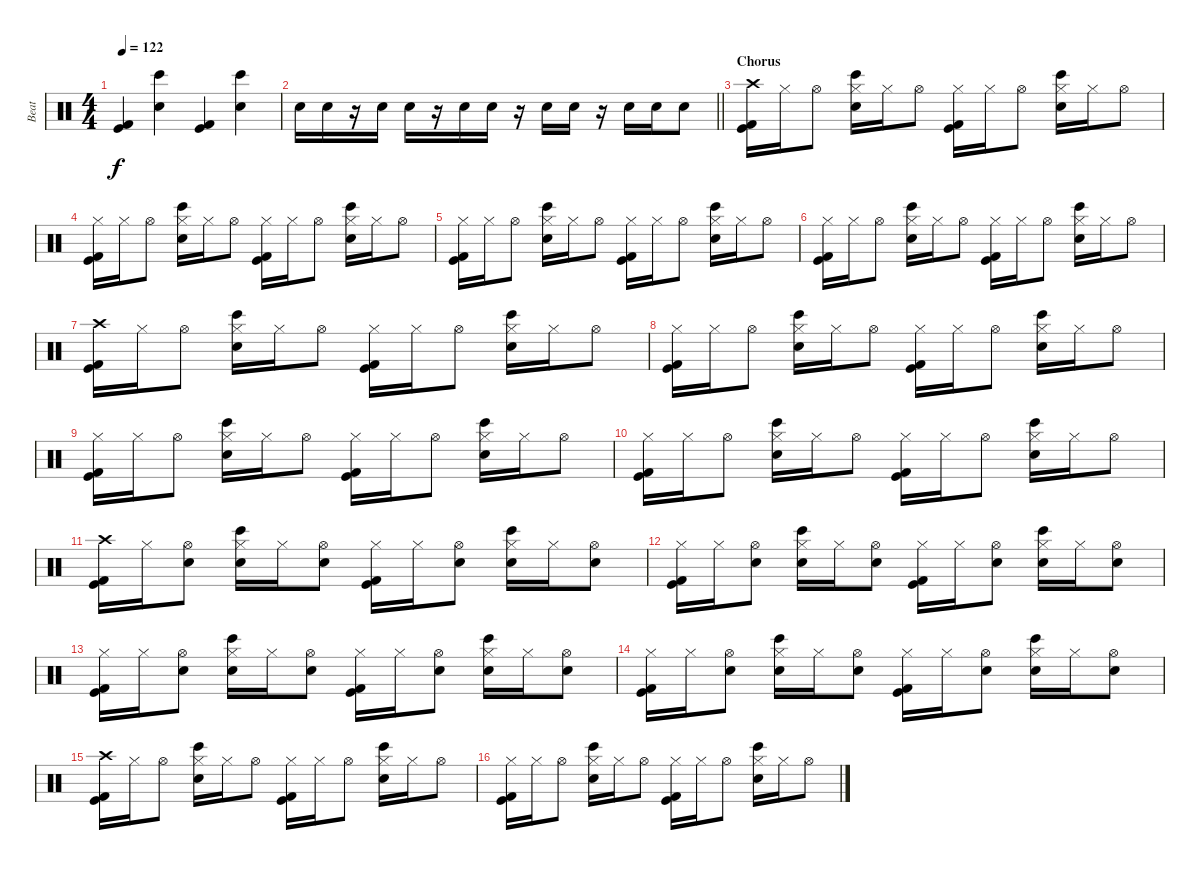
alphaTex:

\track ("Beat" "Beat") {instrument percussion}
\staff {score}
\articulation defaults
\ts (4 4)
\tempo 122
\clef neutral
\ks c
("Kick (hit)" "Kick (hit) 2").4{dy f} ("Bongo High (hit)" "Electric Snare (hit)").4 ("Kick (hit)" "Kick (hit) 2").4 ("Bongo High (hit)" "Electric Snare (hit)").4 |
\barLineRight lightlight "Electric Snare (hit)".16 "Electric Snare (hit)".16
r.16 "Electric Snare (hit)".16 "Electric Snare (hit)".16 r.16 "Electric Snare (hit)".16 "Electric Snare (hit)".16 r.16 "Electric Snare (hit)".16 "Electric Snare (hit)".16 r.16 "Electric Snare (hit)".16 "Electric Snare (hit)".16 "Electric Snare (hit)".8 |
\section ("" "Chorus")
("Crash high (hit)" "Kick (hit)" "Kick (hit) 2").16 "Hi-Hat (closed)".16 "Hi-Hat (open)".8 ("Hi-Hat (closed)" "Bongo High (hit)" "Electric Snare (hit)").16 "Hi-Hat (closed)".16 "Hi-Hat (open)".8 ("Hi-Hat (closed)" "Kick (hit)" "Kick (hit) 2").16 "Hi-Hat (closed)".16 "Hi-Hat (open)".8 ("Hi-Hat (closed)" "Bongo High (hit)" "Electric Snare (hit)").16 "Hi-Hat (closed)".16 "Hi-Hat (open)".8 |
("Hi-Hat (closed)" "Kick (hit)" "Kick (hit) 2").16 "Hi-Hat (closed)".16 "Hi-Hat (open)".8 ("Hi-Hat (closed)" "Bongo High (hit)" "Electric Snare (hit)").16 "Hi-Hat (closed)".16 "Hi-Hat (open)".8 ("Hi-Hat (closed)" "Kick (hit)" "Kick (hit) 2").16 "Hi-Hat (closed)".16 "Hi-Hat (open)".8 ("Hi-Hat (closed)" "Bongo High (hit)" "Electric Snare (hit)").16 "Hi-Hat (closed)".16 "Hi-Hat (open)".8 |
("Hi-Hat (closed)" "Kick (hit)" "Kick (hit) 2").16 "Hi-Hat (closed)".16 "Hi-Hat (open)".8 ("Hi-Hat (closed)" "Bongo High (hit)" "Electric Snare (hit)").16 "Hi-Hat (closed)".16 "Hi-Hat (open)".8 ("Hi-Hat (closed)" "Kick (hit)" "Kick (hit) 2").16 "Hi-Hat (closed)".16 "Hi-Hat (open)".8 ("Hi-Hat (closed)" "Bongo High (hit)" "Electric Snare (hit)").16 "Hi-Hat (closed)".16 "Hi-Hat (open)".8 |
("Hi-Hat (closed)" "Kick (hit)" "Kick (hit) 2").16 "Hi-Hat (closed)".16 "Hi-Hat (open)".8 ("Hi-Hat (closed)" "Bongo High (hit)" "Electric Snare (hit)").16 "Hi-Hat (closed)".16 "Hi-Hat (open)".8 ("Hi-Hat (closed)" "Kick (hit)" "Kick (hit) 2").16 "Hi-Hat (closed)".16 "Hi-Hat (open)".8 ("Hi-Hat (closed)" "Bongo High (hit)" "Electric Snare (hit)").16 "Hi-Hat (closed)".16 "Hi-Hat (open)".8 |
("Crash high (hit)" "Kick (hit)" "Kick (hit) 2").16 "Hi-Hat (closed)".16 "Hi-Hat (open)".8 ("Hi-Hat (closed)" "Bongo High (hit)" "Electric Snare (hit)").16 "Hi-Hat (closed)".16 "Hi-Hat (open)".8 ("Hi-Hat (closed)" "Kick (hit)" "Kick (hit) 2").16 "Hi-Hat (closed)".16 "Hi-Hat (open)".8 ("Hi-Hat (closed)" "Bongo High (hit)" "Electric Snare (hit)").16 "Hi-Hat (closed)".16 "Hi-Hat (open)".8 |
("Hi-Hat (closed)" "Kick (hit)" "Kick (hit) 2").16 "Hi-Hat (closed)".16 "Hi-Hat (open)".8 ("Hi-Hat (closed)" "Bongo High (hit)" "Electric Snare (hit)").16 "Hi-Hat (closed)".16 "Hi-Hat (open)".8 ("Hi-Hat (closed)" "Kick (hit)" "Kick (hit) 2").16 "Hi-Hat (closed)".16 "Hi-Hat (open)".8 ("Hi-Hat (closed)" "Bongo High (hit)" "Electric Snare (hit)").16 "Hi-Hat (closed)".16 "Hi-Hat (open)".8 |
("Hi-Hat (closed)" "Kick (hit)" "Kick (hit) 2").16 "Hi-Hat (closed)".16 "Hi-Hat (open)".8 ("Hi-Hat (closed)" "Bongo High (hit)" "Electric Snare (hit)").16 "Hi-Hat (closed)".16 "Hi-Hat (open)".8 ("Hi-Hat (closed)" "Kick (hit)" "Kick (hit) 2").16 "Hi-Hat (closed)".16 "Hi-Hat (open)".8 ("Hi-Hat (closed)" "Bongo High (hit)" "Electric Snare (hit)").16 "Hi-Hat (closed)".16 "Hi-Hat (open)".8 |
("Hi-Hat (closed)" "Kick (hit)" "Kick (hit) 2").16 "Hi-Hat (closed)".16 "Hi-Hat (open)".8 ("Hi-Hat (closed)" "Bongo High (hit)" "Electric Snare (hit)").16 "Hi-Hat (closed)".16 "Hi-Hat (open)".8 ("Hi-Hat (closed)" "Kick (hit)" "Kick (hit) 2").16 "Hi-Hat (closed)".16 "Hi-Hat (open)".8 ("Hi-Hat (closed)" "Bongo High (hit)" "Electric Snare (hit)").16 "Hi-Hat (closed)".16 "Hi-Hat (open)".8 |
("Crash high (hit)" "Kick (hit)" "Kick (hit) 2").16 "Hi-Hat (closed)".16 ("Hi-Hat (open)" "Hand Clap (hit)").8 ("Hi-Hat (closed)" "Bongo High (hit)" "Electric Snare (hit)").16 "Hi-Hat (closed)".16 ("Hi-Hat (open)" "Hand Clap (hit)").8 ("Hi-Hat (closed)" "Kick (hit)" "Kick (hit) 2").16 "Hi-Hat (closed)".16 ("Hi-Hat (open)" "Hand Clap (hit)").8 ("Hi-Hat (closed)" "Bongo High (hit)" "Electric Snare (hit)").16 "Hi-Hat (closed)".16 ("Hi-Hat (open)" "Hand Clap (hit)").8 |
("Hi-Hat (closed)" "Kick (hit)" "Kick (hit) 2").16 "Hi-Hat (closed)".16 ("Hi-Hat (open)" "Hand Clap (hit)").8 ("Hi-Hat (closed)" "Bongo High (hit)" "Electric Snare (hit)").16 "Hi-Hat (closed)".16 ("Hi-Hat (open)" "Hand Clap (hit)").8 ("Hi-Hat (closed)" "Kick (hit)" "Kick (hit) 2").16 "Hi-Hat (closed)".16 ("Hi-Hat (open)" "Hand Clap (hit)").8 ("Hi-Hat (closed)" "Bongo High (hit)" "Electric Snare (hit)").16 "Hi-Hat (closed)".16 ("Hi-Hat (open)" "Hand Clap (hit)").8 |
("Hi-Hat (closed)" "Kick (hit)" "Kick (hit) 2").16 "Hi-Hat (closed)".16 ("Hi-Hat (open)" "Hand Clap (hit)").8 ("Hi-Hat (closed)" "Bongo High (hit)" "Electric Snare (hit)").16 "Hi-Hat (closed)".16 ("Hi-Hat (open)" "Hand Clap (hit)").8 ("Hi-Hat (closed)" "Kick (hit)" "Kick (hit) 2").16 "Hi-Hat (closed)".16 ("Hi-Hat (open)" "Hand Clap (hit)").8 ("Hi-Hat (closed)" "Bongo High (hit)" "Electric Snare (hit)").16 "Hi-Hat (closed)".16 ("Hi-Hat (open)" "Hand Clap (hit)").8 |
("Hi-Hat (closed)" "Kick (hit)" "Kick (hit) 2").16 "Hi-Hat (closed)".16 ("Hi-Hat (open)" "Hand Clap (hit)").8 ("Hi-Hat (closed)" "Bongo High (hit)" "Electric Snare (hit)").16 "Hi-Hat (closed)".16 ("Hi-Hat (open)" "Hand Clap (hit)").8 ("Hi-Hat (closed)" "Kick (hit)" "Kick (hit) 2").16 "Hi-Hat (closed)".16 ("Hi-Hat (open)" "Hand Clap (hit)").8 ("Hi-Hat (closed)" "Bongo High (hit)" "Electric Snare (hit)").16 "Hi-Hat (closed)".16 ("Hi-Hat (open)" "Hand Clap (hit)").8 |
("Crash high (hit)" "Kick (hit)" "Kick (hit) 2").16 "Hi-Hat (closed)".16 "Hi-Hat (open)".8 ("Hi-Hat (closed)" "Bongo High (hit)" "Electric Snare (hit)").16 "Hi-Hat (closed)".16 "Hi-Hat (open)".8 ("Hi-Hat (closed)" "Kick (hit)" "Kick (hit) 2").16 "Hi-Hat (closed)".16 "Hi-Hat (open)".8 ("Hi-Hat (closed)" "Bongo High (hit)" "Electric Snare (hit)").16 "Hi-Hat (closed)".16 "Hi-Hat (open)".8 |
("Hi-Hat (closed)" "Kick (hit)" "Kick (hit) 2").16 "Hi-Hat (closed)".16 "Hi-Hat (open)".8 ("Hi-Hat (closed)" "Bongo High (hit)" "Electric Snare (hit)").16 "Hi-Hat (closed)".16 "Hi-Hat (open)".8 ("Hi-Hat (closed)" "Kick (hit)" "Kick (hit) 2").16 "Hi-Hat (closed)".16 "Hi-Hat (open)".8 ("Hi-Hat (closed)" "Bongo High (hit)" "Electric Snare (hit)").16 "Hi-Hat (closed)".16 "Hi-Hat (open)".8
